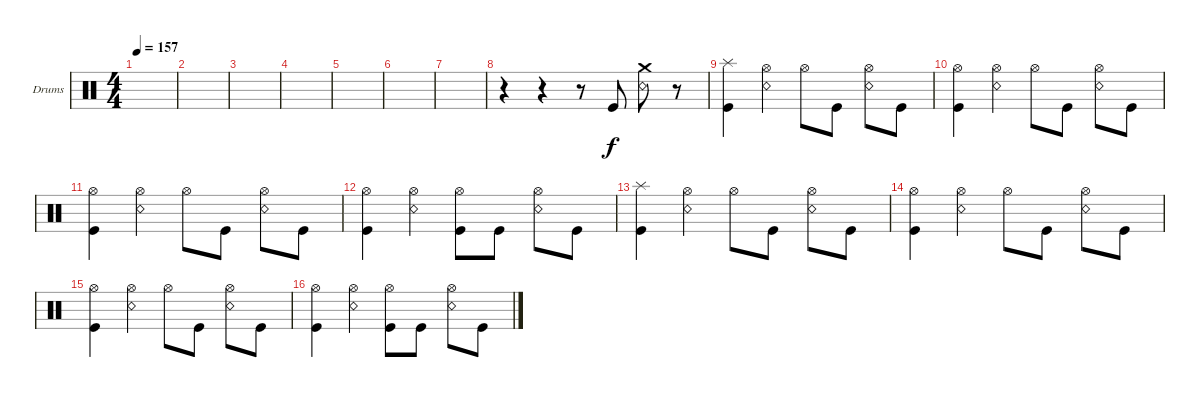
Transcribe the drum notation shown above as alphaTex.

\defaultSystemsLayout 4
\bracketExtendMode groupsimilarinstruments
\firstSystemTrackNameOrientation horizontal
\otherSystemsTrackNameOrientation horizontal
\track ("Drumkit" "Drums") {instrument percussion}
\staff {score}
\articulation defaults
\ts (4 4)
\tempo 157
\clef neutral
\scale
0.474178
\ks c
|
\scale
0.262911 |
\scale
0.262911 |
\scale
0.333333 |
\scale
0.333333 |
\scale
0.333333 |
|
r.4 r.4 r.8 "Kick (hit)".8 ("Snare (rim shot)" "Crash medium (hit)").8 r.8 |
("Splash (hit)" "Kick (hit)").4 ("Hi-Hat (open)" "Snare (rim shot)").4 "Hi-Hat (open)".8 "Kick (hit)".8 ("Hi-Hat (open)" "Snare (rim shot)").8 "Kick (hit)".8 |
("Kick (hit)" "Hi-Hat (open)").4 ("Hi-Hat (open)" "Snare (rim shot)").4 "Hi-Hat (open)".8 "Kick (hit)".8 ("Hi-Hat (open)" "Snare (rim shot)").8 "Kick (hit)".8 |
("Kick (hit)" "Hi-Hat (open)").4 ("Hi-Hat (open)" "Snare (rim shot)").4 "Hi-Hat (open)".8 "Kick (hit)".8 ("Hi-Hat (open)" "Snare (rim shot)").8 "Kick (hit)".8 |
("Kick (hit)" "Hi-Hat (open)").4 ("Hi-Hat (open)" "Snare (rim shot)").4 ("Hi-Hat (open)" "Kick (hit)").8 "Kick (hit)".8 ("Hi-Hat (open)" "Snare (rim shot)").8 "Kick (hit)".8 |
("Splash (hit)" "Kick (hit)").4 ("Hi-Hat (open)" "Snare (rim shot)").4 "Hi-Hat (open)".8 "Kick (hit)".8 ("Hi-Hat (open)" "Snare (rim shot)").8 "Kick (hit)".8 |
("Kick (hit)" "Hi-Hat (open)").4 ("Hi-Hat (open)" "Snare (rim shot)").4 "Hi-Hat (open)".8 "Kick (hit)".8 ("Hi-Hat (open)" "Snare (rim shot)").8 "Kick (hit)".8 |
("Kick (hit)" "Hi-Hat (open)").4 ("Hi-Hat (open)" "Snare (rim shot)").4 "Hi-Hat (open)".8 "Kick (hit)".8 ("Hi-Hat (open)" "Snare (rim shot)").8 "Kick (hit)".8 |
("Kick (hit)" "Hi-Hat (open)").4 ("Hi-Hat (open)" "Snare (rim shot)").4 ("Hi-Hat (open)" "Kick (hit)").8 "Kick (hit)".8 ("Hi-Hat (open)" "Snare (rim shot)").8 "Kick (hit)".8
